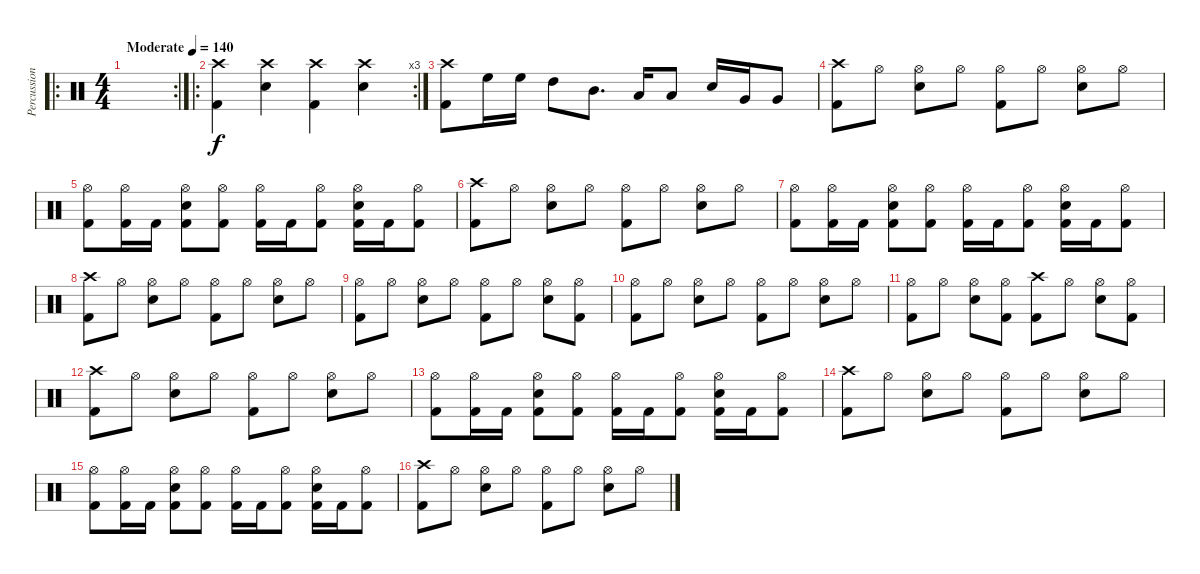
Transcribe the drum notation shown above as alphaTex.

\track ("Percussion" "Percussion") {instrument percussion}
\staff {score}
\articulation defaults
\ro
\rc 2
\ts (4 4)
\tempo (140 "Moderate")
\clef neutral
\ks c
|
\ro
\rc 3
("Crash high (hit)" "Kick (hit) 2").4 ("Crash high (hit)" "Electric Snare (hit)").4 ("Crash high (hit)" "Kick (hit) 2").4 ("Crash high (hit)" "Electric Snare (hit)").4 |
("Crash high (hit)" "Kick (hit) 2").8 "High Floor Tom (hit)".16 "High Floor Tom (hit)".16 "High Tom (hit)".8 "Mid Tom (hit)".8{d} "Low Tom (hit)".16 "Low Tom (hit)".8 "Electric Snare (hit)".16 "Very Low Tom (hit)".16 "Very Low Tom (hit)".8 |
("Crash high (hit)" "Kick (hit) 2").8 "Hi-Hat (open)".8 ("Hi-Hat (open)" "Electric Snare (hit)").8 "Hi-Hat (open)".8 ("Hi-Hat (open)" "Kick (hit) 2").8 "Hi-Hat (open)".8 ("Hi-Hat (open)" "Electric Snare (hit)").8 "Hi-Hat (open)".8 |
("Hi-Hat (open)" "Kick (hit) 2").8 ("Hi-Hat (open)" "Kick (hit) 2").16 "Kick (hit) 2".16 ("Hi-Hat (open)" "Electric Snare (hit)" "Kick (hit) 2").8 ("Hi-Hat (open)" "Kick (hit) 2").8 ("Hi-Hat (open)" "Kick (hit) 2").16 "Kick (hit) 2".16 ("Hi-Hat (open)" "Kick (hit) 2").8 ("Hi-Hat (open)" "Electric Snare (hit)" "Kick (hit) 2").16 "Kick (hit) 2".16 ("Hi-Hat (open)" "Kick (hit) 2").8 |
("Crash high (hit)" "Kick (hit) 2").8 "Hi-Hat (open)".8 ("Hi-Hat (open)" "Electric Snare (hit)").8 "Hi-Hat (open)".8 ("Hi-Hat (open)" "Kick (hit) 2").8 "Hi-Hat (open)".8 ("Hi-Hat (open)" "Electric Snare (hit)").8 "Hi-Hat (open)".8 |
("Hi-Hat (open)" "Kick (hit) 2").8 ("Hi-Hat (open)" "Kick (hit) 2").16 "Kick (hit) 2".16 ("Hi-Hat (open)" "Electric Snare (hit)" "Kick (hit) 2").8 ("Hi-Hat (open)" "Kick (hit) 2").8 ("Hi-Hat (open)" "Kick (hit) 2").16 "Kick (hit) 2".16 ("Hi-Hat (open)" "Kick (hit) 2").8 ("Hi-Hat (open)" "Electric Snare (hit)" "Kick (hit) 2").16 "Kick (hit) 2".16 ("Hi-Hat (open)" "Kick (hit) 2").8 |
("Crash high (hit)" "Kick (hit) 2").8 "Hi-Hat (open)".8 ("Hi-Hat (open)" "Electric Snare (hit)").8 "Hi-Hat (open)".8 ("Hi-Hat (open)" "Kick (hit) 2").8 "Hi-Hat (open)".8 ("Hi-Hat (open)" "Electric Snare (hit)").8 "Hi-Hat (open)".8 |
("Hi-Hat (open)" "Kick (hit) 2").8 "Hi-Hat (open)".8 ("Hi-Hat (open)" "Electric Snare (hit)").8 "Hi-Hat (open)".8 ("Hi-Hat (open)" "Kick (hit) 2").8 "Hi-Hat (open)".8 ("Hi-Hat (open)" "Electric Snare (hit)").8 ("Hi-Hat (open)" "Kick (hit) 2").8 |
("Hi-Hat (open)" "Kick (hit) 2").8 "Hi-Hat (open)".8 ("Hi-Hat (open)" "Electric Snare (hit)").8 "Hi-Hat (open)".8 ("Hi-Hat (open)" "Kick (hit) 2").8 "Hi-Hat (open)".8 ("Hi-Hat (open)" "Electric Snare (hit)").8 "Hi-Hat (open)".8 |
("Hi-Hat (open)" "Kick (hit) 2").8 "Hi-Hat (open)".8 ("Hi-Hat (open)" "Electric Snare (hit)").8 ("Hi-Hat (open)" "Kick (hit) 2").8 ("Crash high (hit)" "Kick (hit) 2").8 "Hi-Hat (open)".8 ("Hi-Hat (open)" "Electric Snare (hit)").8 ("Hi-Hat (open)" "Kick (hit) 2").8 |
("Crash high (hit)" "Kick (hit) 2").8 "Hi-Hat (open)".8 ("Hi-Hat (open)" "Electric Snare (hit)").8 "Hi-Hat (open)".8 ("Hi-Hat (open)" "Kick (hit) 2").8 "Hi-Hat (open)".8 ("Hi-Hat (open)" "Electric Snare (hit)").8 "Hi-Hat (open)".8 |
("Hi-Hat (open)" "Kick (hit) 2").8 ("Hi-Hat (open)" "Kick (hit) 2").16 "Kick (hit) 2".16 ("Hi-Hat (open)" "Electric Snare (hit)" "Kick (hit) 2").8 ("Hi-Hat (open)" "Kick (hit) 2").8 ("Hi-Hat (open)" "Kick (hit) 2").16 "Kick (hit) 2".16 ("Hi-Hat (open)" "Kick (hit) 2").8 ("Hi-Hat (open)" "Electric Snare (hit)" "Kick (hit) 2").16 "Kick (hit) 2".16 ("Hi-Hat (open)" "Kick (hit) 2").8 |
("Crash high (hit)" "Kick (hit) 2").8 "Hi-Hat (open)".8 ("Hi-Hat (open)" "Electric Snare (hit)").8 "Hi-Hat (open)".8 ("Hi-Hat (open)" "Kick (hit) 2").8 "Hi-Hat (open)".8 ("Hi-Hat (open)" "Electric Snare (hit)").8 "Hi-Hat (open)".8 |
("Hi-Hat (open)" "Kick (hit) 2").8 ("Hi-Hat (open)" "Kick (hit) 2").16 "Kick (hit) 2".16 ("Hi-Hat (open)" "Electric Snare (hit)" "Kick (hit) 2").8 ("Hi-Hat (open)" "Kick (hit) 2").8 ("Hi-Hat (open)" "Kick (hit) 2").16 "Kick (hit) 2".16 ("Hi-Hat (open)" "Kick (hit) 2").8 ("Hi-Hat (open)" "Electric Snare (hit)" "Kick (hit) 2").16 "Kick (hit) 2".16 ("Hi-Hat (open)" "Kick (hit) 2").8 |
("Crash high (hit)" "Kick (hit) 2").8 "Hi-Hat (open)".8 ("Hi-Hat (open)" "Electric Snare (hit)").8 "Hi-Hat (open)".8 ("Hi-Hat (open)" "Kick (hit) 2").8 "Hi-Hat (open)".8 ("Hi-Hat (open)" "Electric Snare (hit)").8 "Hi-Hat (open)".8
